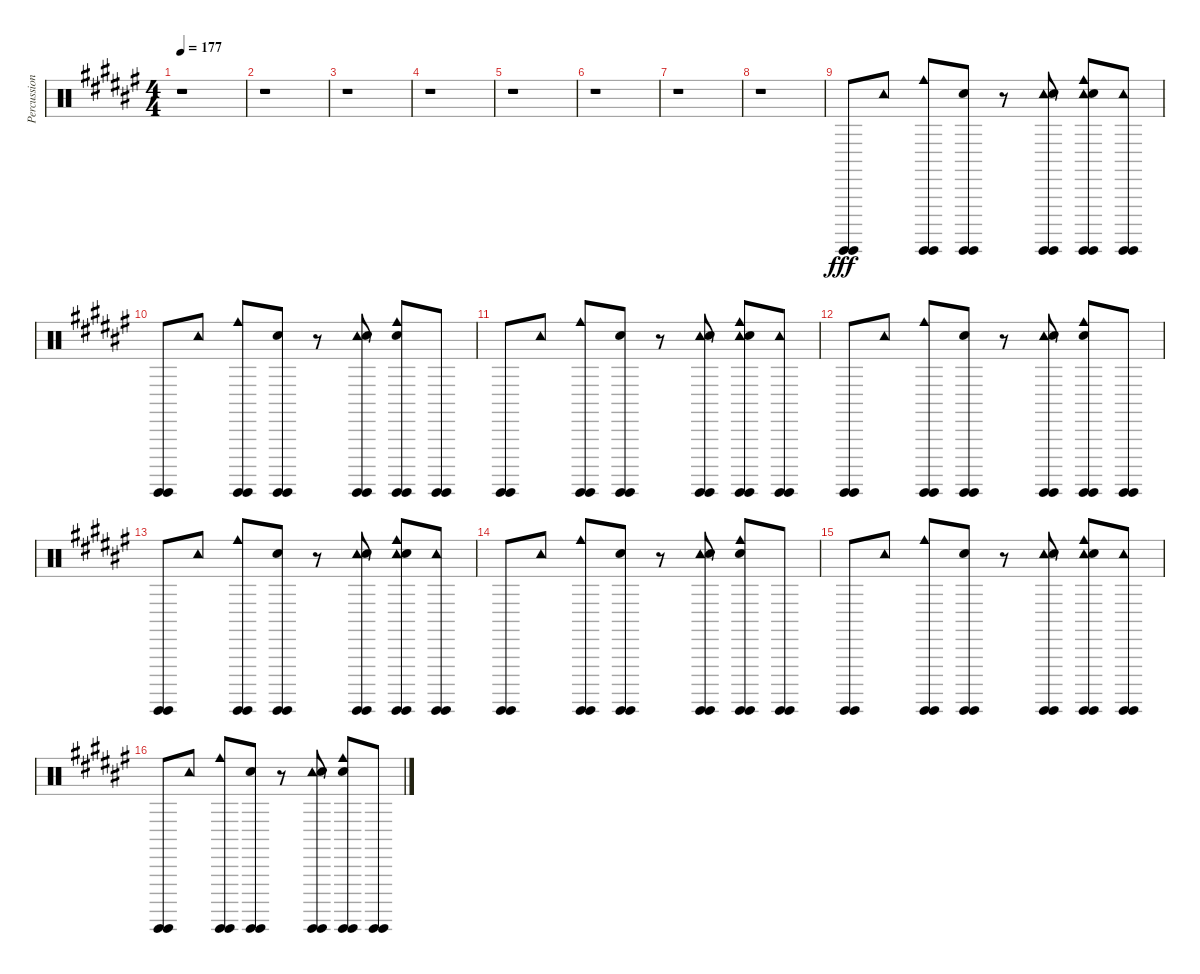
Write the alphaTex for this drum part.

\track ("Percussion" "Percussion") {instrument percussion}
\staff {score}
\articulation defaults
\ts (4 4)
\tempo 177
\clef neutral
\ks d#minor
r.1{dy fff} |
r.1 |
r.1 |
r.1 |
r.1 |
r.1 |
r.1 |
r.1 |
("Guiro (hit)" "Guiro (hit)").8 "Tambourine (hit)".8 ("Cowbell medium (hit)" "Guiro (hit)" "Guiro (hit)").8 ("Guiro (hit)" "Guiro (hit)" "Hand Clap (hit)").8 r.8 ("Tambourine (hit)" "Guiro (hit)" "Guiro (hit)" "Hand Clap (hit)").8 ("Cowbell medium (hit)" "Tambourine (hit)" "Guiro (hit)" "Guiro (hit)" "Hand Clap (hit)").8 ("Tambourine (hit)" "Guiro (hit)" "Guiro (hit)").8 |
("Guiro (hit)" "Guiro (hit)").8 "Tambourine (hit)".8 ("Cowbell medium (hit)" "Guiro (hit)" "Guiro (hit)").8 ("Guiro (hit)" "Guiro (hit)" "Hand Clap (hit)").8 r.8 ("Tambourine (hit)" "Guiro (hit)" "Guiro (hit)" "Hand Clap (hit)").8 ("Cowbell medium (hit)" "Guiro (hit)" "Guiro (hit)" "Hand Clap (hit)").8 ("Guiro (hit)" "Guiro (hit)").8 |
("Guiro (hit)" "Guiro (hit)").8 "Tambourine (hit)".8 ("Cowbell medium (hit)" "Guiro (hit)" "Guiro (hit)").8 ("Guiro (hit)" "Guiro (hit)" "Hand Clap (hit)").8 r.8 ("Tambourine (hit)" "Guiro (hit)" "Guiro (hit)" "Hand Clap (hit)").8 ("Cowbell medium (hit)" "Tambourine (hit)" "Guiro (hit)" "Guiro (hit)" "Hand Clap (hit)").8 ("Tambourine (hit)" "Guiro (hit)" "Guiro (hit)").8 |
("Guiro (hit)" "Guiro (hit)").8 "Tambourine (hit)".8 ("Cowbell medium (hit)" "Guiro (hit)" "Guiro (hit)").8 ("Guiro (hit)" "Guiro (hit)" "Hand Clap (hit)").8 r.8 ("Tambourine (hit)" "Guiro (hit)" "Guiro (hit)" "Hand Clap (hit)").8 ("Cowbell medium (hit)" "Guiro (hit)" "Guiro (hit)" "Hand Clap (hit)").8 ("Guiro (hit)" "Guiro (hit)").8 |
("Guiro (hit)" "Guiro (hit)").8 "Tambourine (hit)".8 ("Cowbell medium (hit)" "Guiro (hit)" "Guiro (hit)").8 ("Guiro (hit)" "Guiro (hit)" "Hand Clap (hit)").8 r.8 ("Tambourine (hit)" "Guiro (hit)" "Guiro (hit)" "Hand Clap (hit)").8 ("Cowbell medium (hit)" "Tambourine (hit)" "Guiro (hit)" "Guiro (hit)" "Hand Clap (hit)").8 ("Tambourine (hit)" "Guiro (hit)" "Guiro (hit)").8 |
("Guiro (hit)" "Guiro (hit)").8 "Tambourine (hit)".8 ("Cowbell medium (hit)" "Guiro (hit)" "Guiro (hit)").8 ("Guiro (hit)" "Guiro (hit)" "Hand Clap (hit)").8 r.8 ("Tambourine (hit)" "Guiro (hit)" "Guiro (hit)" "Hand Clap (hit)").8 ("Cowbell medium (hit)" "Guiro (hit)" "Guiro (hit)" "Hand Clap (hit)").8 ("Guiro (hit)" "Guiro (hit)").8 |
("Guiro (hit)" "Guiro (hit)").8 "Tambourine (hit)".8 ("Cowbell medium (hit)" "Guiro (hit)" "Guiro (hit)").8 ("Guiro (hit)" "Guiro (hit)" "Hand Clap (hit)").8 r.8 ("Tambourine (hit)" "Guiro (hit)" "Guiro (hit)" "Hand Clap (hit)").8 ("Cowbell medium (hit)" "Tambourine (hit)" "Guiro (hit)" "Guiro (hit)" "Hand Clap (hit)").8 ("Tambourine (hit)" "Guiro (hit)" "Guiro (hit)").8 |
("Guiro (hit)" "Guiro (hit)").8 "Tambourine (hit)".8 ("Cowbell medium (hit)" "Guiro (hit)" "Guiro (hit)").8 ("Guiro (hit)" "Guiro (hit)" "Hand Clap (hit)").8 r.8 ("Tambourine (hit)" "Guiro (hit)" "Guiro (hit)" "Hand Clap (hit)").8 ("Cowbell medium (hit)" "Guiro (hit)" "Guiro (hit)" "Hand Clap (hit)").8 ("Guiro (hit)" "Guiro (hit)").8
